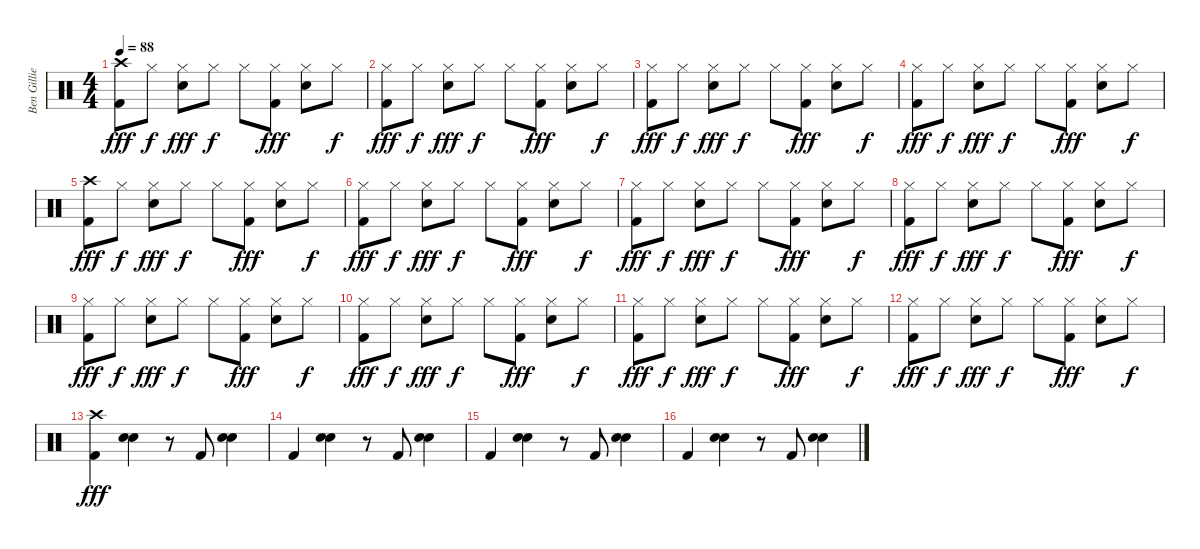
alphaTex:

\track ("Ben Gillies (Drums)" "Ben Gillie") {instrument percussion}
\staff {score}
\articulation defaults
\ts (4 4)
\tempo 88
\clef neutral
\ks c
("Crash high (hit)" "Kick (hit) 2").8{dy fff} "Hi-Hat (closed)".8{dy f} ("Hi-Hat (closed)" "Electric Snare (hit)").8{dy fff} "Hi-Hat (closed)".8{dy f} "Hi-Hat (closed)".8 ("Hi-Hat (closed)" "Kick (hit) 2").8{dy fff} ("Hi-Hat (closed)" "Electric Snare (hit)").8 "Hi-Hat (closed)".8{dy f} |
("Hi-Hat (closed)" "Kick (hit) 2").8{dy fff} "Hi-Hat (closed)".8{dy f} ("Hi-Hat (closed)" "Electric Snare (hit)").8{dy fff} "Hi-Hat (closed)".8{dy f} "Hi-Hat (closed)".8 ("Hi-Hat (closed)" "Kick (hit) 2").8{dy fff} ("Hi-Hat (closed)" "Electric Snare (hit)").8 "Hi-Hat (closed)".8{dy f} |
("Hi-Hat (closed)" "Kick (hit) 2").8{dy fff} "Hi-Hat (closed)".8{dy f} ("Hi-Hat (closed)" "Electric Snare (hit)").8{dy fff} "Hi-Hat (closed)".8{dy f} "Hi-Hat (closed)".8 ("Hi-Hat (closed)" "Kick (hit) 2").8{dy fff} ("Hi-Hat (closed)" "Electric Snare (hit)").8 "Hi-Hat (closed)".8{dy f} |
("Hi-Hat (closed)" "Kick (hit) 2").8{dy fff} "Hi-Hat (closed)".8{dy f} ("Hi-Hat (closed)" "Electric Snare (hit)").8{dy fff} "Hi-Hat (closed)".8{dy f} "Hi-Hat (closed)".8 ("Hi-Hat (closed)" "Kick (hit) 2").8{dy fff} ("Hi-Hat (closed)" "Electric Snare (hit)").8 "Hi-Hat (closed)".8{dy f} |
("Crash high (hit)" "Kick (hit) 2").8{dy fff} "Hi-Hat (closed)".8{dy f} ("Hi-Hat (closed)" "Electric Snare (hit)").8{dy fff} "Hi-Hat (closed)".8{dy f} "Hi-Hat (closed)".8 ("Hi-Hat (closed)" "Kick (hit) 2").8{dy fff} ("Hi-Hat (closed)" "Electric Snare (hit)").8 "Hi-Hat (closed)".8{dy f} |
("Hi-Hat (closed)" "Kick (hit) 2").8{dy fff} "Hi-Hat (closed)".8{dy f} ("Hi-Hat (closed)" "Electric Snare (hit)").8{dy fff} "Hi-Hat (closed)".8{dy f} "Hi-Hat (closed)".8 ("Hi-Hat (closed)" "Kick (hit) 2").8{dy fff} ("Hi-Hat (closed)" "Electric Snare (hit)").8 "Hi-Hat (closed)".8{dy f} |
("Hi-Hat (closed)" "Kick (hit) 2").8{dy fff} "Hi-Hat (closed)".8{dy f} ("Hi-Hat (closed)" "Electric Snare (hit)").8{dy fff} "Hi-Hat (closed)".8{dy f} "Hi-Hat (closed)".8 ("Hi-Hat (closed)" "Kick (hit) 2").8{dy fff} ("Hi-Hat (closed)" "Electric Snare (hit)").8 "Hi-Hat (closed)".8{dy f} |
("Hi-Hat (closed)" "Kick (hit) 2").8{dy fff} "Hi-Hat (closed)".8{dy f} ("Hi-Hat (closed)" "Electric Snare (hit)").8{dy fff} "Hi-Hat (closed)".8{dy f} "Hi-Hat (closed)".8 ("Hi-Hat (closed)" "Kick (hit) 2").8{dy fff} ("Hi-Hat (closed)" "Electric Snare (hit)").8 "Hi-Hat (closed)".8{dy f} |
("Hi-Hat (closed)" "Kick (hit) 2").8{dy fff} "Hi-Hat (closed)".8{dy f} ("Hi-Hat (closed)" "Electric Snare (hit)").8{dy fff} "Hi-Hat (closed)".8{dy f} "Hi-Hat (closed)".8 ("Hi-Hat (closed)" "Kick (hit) 2").8{dy fff} ("Hi-Hat (closed)" "Electric Snare (hit)").8 "Hi-Hat (closed)".8{dy f} |
("Hi-Hat (closed)" "Kick (hit) 2").8{dy fff} "Hi-Hat (closed)".8{dy f} ("Hi-Hat (closed)" "Electric Snare (hit)").8{dy fff} "Hi-Hat (closed)".8{dy f} "Hi-Hat (closed)".8 ("Hi-Hat (closed)" "Kick (hit) 2").8{dy fff} ("Hi-Hat (closed)" "Electric Snare (hit)").8 "Hi-Hat (closed)".8{dy f} |
("Hi-Hat (closed)" "Kick (hit) 2").8{dy fff} "Hi-Hat (closed)".8{dy f} ("Hi-Hat (closed)" "Electric Snare (hit)").8{dy fff} "Hi-Hat (closed)".8{dy f} "Hi-Hat (closed)".8 ("Hi-Hat (closed)" "Kick (hit) 2").8{dy fff} ("Hi-Hat (closed)" "Electric Snare (hit)").8 "Hi-Hat (closed)".8{dy f} |
("Hi-Hat (closed)" "Kick (hit) 2").8{dy fff} "Hi-Hat (closed)".8{dy f} ("Hi-Hat (closed)" "Electric Snare (hit)").8{dy fff} "Hi-Hat (closed)".8{dy f} "Hi-Hat (closed)".8 ("Hi-Hat (closed)" "Kick (hit) 2").8{dy fff} ("Hi-Hat (closed)" "Electric Snare (hit)").8 "Hi-Hat (closed)".8{dy f} |
("Crash high (hit)" "Kick (hit) 2").4{dy fff} ("Electric Snare (hit)" "Electric Snare (hit)").4 r.8 "Kick (hit) 2".8 ("Electric Snare (hit)" "Electric Snare (hit)").4 |
"Kick (hit) 2".4 ("Electric Snare (hit)" "Electric Snare (hit)").4 r.8 "Kick (hit) 2".8 ("Electric Snare (hit)" "Electric Snare (hit)").4 |
"Kick (hit) 2".4 ("Electric Snare (hit)" "Electric Snare (hit)").4 r.8 "Kick (hit) 2".8 ("Electric Snare (hit)" "Electric Snare (hit)").4 |
"Kick (hit) 2".4 ("Electric Snare (hit)" "Electric Snare (hit)").4 r.8 "Kick (hit) 2".8 ("Electric Snare (hit)" "Electric Snare (hit)").4
